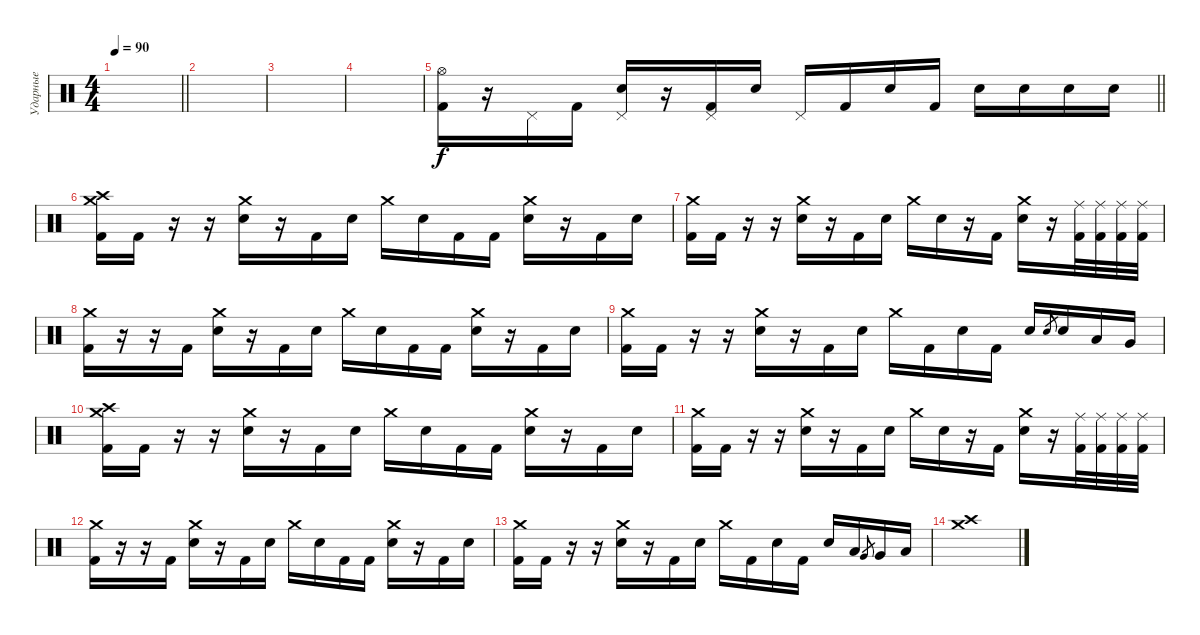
\track ("Ударные" "Ударные") {instrument percussion}
\staff {score}
\articulation defaults
\ts (4 4)
\tempo 90
\clef neutral
\barLineRight lightlight
\ks c
|
|
|
|
\barLineRight lightlight
("Hi-Hat (open)" "Kick (hit) 2").16 r.16 "Pedal Hi-Hat (hit)".16 "Kick (hit) 2".16 ("Pedal Hi-Hat (hit)" "Snare (hit) 2").16 r.16 ("Pedal Hi-Hat (hit)" "Kick (hit) 2").16 "Snare (hit) 2".16 "Pedal Hi-Hat (hit)".16 "Kick (hit) 2".16 "Snare (hit) 2".16 "Kick (hit) 2".16 "Snare (hit) 2".16 "Snare (hit) 2".16 "Snare (hit) 2".16 "Snare (hit) 2".16 |
("Crash medium (hit)" "Crash high (hit)" "Kick (hit) 2").16 "Kick (hit) 2".16 r.16 r.16 ("Crash medium (hit)" "Snare (hit) 2").16 r.16 "Kick (hit) 2".16 "Snare (hit) 2".16 "Crash medium (hit)".16 "Snare (hit) 2".16 "Kick (hit) 2".16 "Kick (hit) 2".16 ("Crash medium (hit)" "Snare (hit) 2").16 r.16 "Kick (hit) 2".16 "Snare (hit) 2".16 |
("Crash medium (hit)" "Kick (hit) 2").16 "Kick (hit) 2".16 r.16 r.16 ("Crash medium (hit)" "Snare (hit) 2").16 r.16 "Kick (hit) 2".16 "Snare (hit) 2".16 "Crash medium (hit)".16 "Snare (hit) 2".16 r.16 "Kick (hit) 2".16 ("Crash medium (hit)" "Snare (hit) 2").16 r.16 ("Ride (middle)" "Kick (hit) 2").32 ("Ride (middle)" "Kick (hit) 2").32 ("Ride (middle)" "Kick (hit) 2").32 ("Ride (middle)" "Kick (hit) 2").32 |
("Crash medium (hit)" "Kick (hit) 2").16 r.16 r.16 "Kick (hit) 2".16 ("Crash medium (hit)" "Snare (hit) 2").16 r.16 "Kick (hit) 2".16 "Snare (hit) 2".16 "Crash medium (hit)".16 "Snare (hit) 2".16 "Kick (hit) 2".16 "Kick (hit) 2".16 ("Crash medium (hit)" "Snare (hit) 2").16 r.16 "Kick (hit) 2".16 "Snare (hit) 2".16 |
("Crash medium (hit)" "Kick (hit) 2").16 "Kick (hit) 2".16 r.16 r.16 ("Crash medium (hit)" "Snare (hit) 2").16 r.16 "Kick (hit) 2".16 "Snare (hit) 2".16 "Crash medium (hit)".16 "Kick (hit) 2".16 "Snare (hit) 2".16 "Kick (hit) 2".16 "Snare (hit) 2".16 "Snare (hit) 2".8{gr} "Snare (hit) 2".16 "Low Floor Tom (hit)".16 "Very Low Tom (hit)".16 |
("Crash medium (hit)" "Crash high (hit)" "Kick (hit) 2").16 "Kick (hit) 2".16 r.16 r.16 ("Crash medium (hit)" "Snare (hit) 2").16 r.16 "Kick (hit) 2".16 "Snare (hit) 2".16 "Crash medium (hit)".16 "Snare (hit) 2".16 "Kick (hit) 2".16 "Kick (hit) 2".16 ("Crash medium (hit)" "Snare (hit) 2").16 r.16 "Kick (hit) 2".16 "Snare (hit) 2".16 |
("Crash medium (hit)" "Kick (hit) 2").16 "Kick (hit) 2".16 r.16 r.16 ("Crash medium (hit)" "Snare (hit) 2").16 r.16 "Kick (hit) 2".16 "Snare (hit) 2".16 "Crash medium (hit)".16 "Snare (hit) 2".16 r.16 "Kick (hit) 2".16 ("Crash medium (hit)" "Snare (hit) 2").16 r.16 ("Ride (middle)" "Kick (hit) 2").32 ("Ride (middle)" "Kick (hit) 2").32 ("Ride (middle)" "Kick (hit) 2").32 ("Ride (middle)" "Kick (hit) 2").32 |
("Crash medium (hit)" "Kick (hit) 2").16 r.16 r.16 "Kick (hit) 2".16 ("Crash medium (hit)" "Snare (hit) 2").16 r.16 "Kick (hit) 2".16 "Snare (hit) 2".16 "Crash medium (hit)".16 "Snare (hit) 2".16 "Kick (hit) 2".16 "Kick (hit) 2".16 ("Crash medium (hit)" "Snare (hit) 2").16 r.16 "Kick (hit) 2".16 "Snare (hit) 2".16 |
("Crash medium (hit)" "Kick (hit) 2").16 "Kick (hit) 2".16 r.16 r.16 ("Crash medium (hit)" "Snare (hit) 2").16 r.16 "Kick (hit) 2".16 "Snare (hit) 2".16 "Crash medium (hit)".16 "Kick (hit) 2".16 "Snare (hit) 2".16 "Kick (hit) 2".16 "Snare (hit) 2".16 "Low Floor Tom (hit)".16 "Very Low Tom (hit)".8{gr} "Very Low Tom (hit)".16 "Low Tom (hit)".16 |
("Crash medium (hit)" "Crash high (hit)").1
